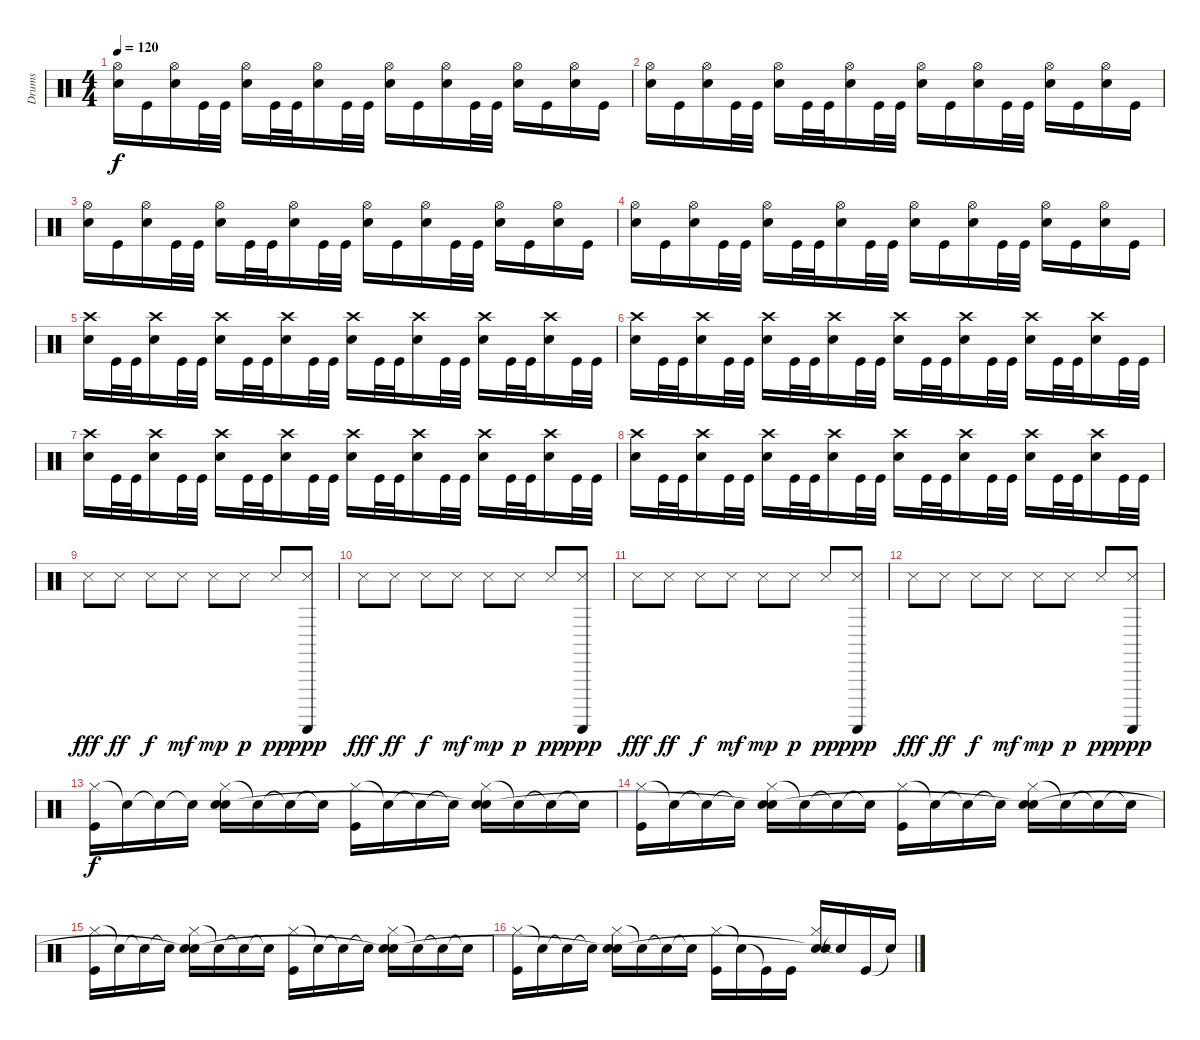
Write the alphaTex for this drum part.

\track ("Drums" "Drums") {instrument percussion}
\staff {score}
\articulation defaults
\ts (4 4)
\tempo 120
\clef neutral
\ks c
("Hi-Hat (open)" "Electric Snare (hit)").16{dy f} "Kick (hit)".16 ("Hi-Hat (open)" "Electric Snare (hit)").16 "Kick (hit)".32 "Kick (hit)".32 ("Hi-Hat (open)" "Electric Snare (hit)").16 "Kick (hit)".32 "Kick (hit)".32 ("Hi-Hat (open)" "Electric Snare (hit)").16 "Kick (hit)".32 "Kick (hit)".32 ("Hi-Hat (open)" "Electric Snare (hit)").16 "Kick (hit)".16 ("Hi-Hat (open)" "Electric Snare (hit)").16 "Kick (hit)".32 "Kick (hit)".32 ("Hi-Hat (open)" "Electric Snare (hit)").16 "Kick (hit)".16 ("Hi-Hat (open)" "Electric Snare (hit)").16 "Kick (hit)".16 |
("Hi-Hat (open)" "Electric Snare (hit)").16 "Kick (hit)".16 ("Hi-Hat (open)" "Electric Snare (hit)").16 "Kick (hit)".32 "Kick (hit)".32 ("Hi-Hat (open)" "Electric Snare (hit)").16 "Kick (hit)".32 "Kick (hit)".32 ("Hi-Hat (open)" "Electric Snare (hit)").16 "Kick (hit)".32 "Kick (hit)".32 ("Hi-Hat (open)" "Electric Snare (hit)").16 "Kick (hit)".16 ("Hi-Hat (open)" "Electric Snare (hit)").16 "Kick (hit)".32 "Kick (hit)".32 ("Hi-Hat (open)" "Electric Snare (hit)").16 "Kick (hit)".16 ("Hi-Hat (open)" "Electric Snare (hit)").16 "Kick (hit)".16 |
("Hi-Hat (open)" "Electric Snare (hit)").16 "Kick (hit)".16 ("Hi-Hat (open)" "Electric Snare (hit)").16 "Kick (hit)".32 "Kick (hit)".32 ("Hi-Hat (open)" "Electric Snare (hit)").16 "Kick (hit)".32 "Kick (hit)".32 ("Hi-Hat (open)" "Electric Snare (hit)").16 "Kick (hit)".32 "Kick (hit)".32 ("Hi-Hat (open)" "Electric Snare (hit)").16 "Kick (hit)".16 ("Hi-Hat (open)" "Electric Snare (hit)").16 "Kick (hit)".32 "Kick (hit)".32 ("Hi-Hat (open)" "Electric Snare (hit)").16 "Kick (hit)".16 ("Hi-Hat (open)" "Electric Snare (hit)").16 "Kick (hit)".16 |
("Hi-Hat (open)" "Electric Snare (hit)").16 "Kick (hit)".16 ("Hi-Hat (open)" "Electric Snare (hit)").16 "Kick (hit)".32 "Kick (hit)".32 ("Hi-Hat (open)" "Electric Snare (hit)").16 "Kick (hit)".32 "Kick (hit)".32 ("Hi-Hat (open)" "Electric Snare (hit)").16 "Kick (hit)".32 "Kick (hit)".32 ("Hi-Hat (open)" "Electric Snare (hit)").16 "Kick (hit)".16 ("Hi-Hat (open)" "Electric Snare (hit)").16 "Kick (hit)".32 "Kick (hit)".32 ("Hi-Hat (open)" "Electric Snare (hit)").16 "Kick (hit)".16 ("Hi-Hat (open)" "Electric Snare (hit)").16 "Kick (hit)".16 |
("Crash high (hit)" "Electric Snare (hit)").16 "Kick (hit)".32 "Kick (hit)".32 ("Crash high (hit)" "Electric Snare (hit)").16 "Kick (hit)".32 "Kick (hit)".32 ("Crash high (hit)" "Electric Snare (hit)").16 "Kick (hit)".32 "Kick (hit)".32 ("Crash high (hit)" "Electric Snare (hit)").16 "Kick (hit)".32 "Kick (hit)".32 ("Crash high (hit)" "Electric Snare (hit)").16 "Kick (hit)".32 "Kick (hit)".32 ("Crash high (hit)" "Electric Snare (hit)").16 "Kick (hit)".32 "Kick (hit)".32 ("Crash high (hit)" "Electric Snare (hit)").16 "Kick (hit)".32 "Kick (hit)".32 ("Crash high (hit)" "Electric Snare (hit)").16 "Kick (hit)".32 "Kick (hit)".32 |
("Crash high (hit)" "Electric Snare (hit)").16 "Kick (hit)".32 "Kick (hit)".32 ("Crash high (hit)" "Electric Snare (hit)").16 "Kick (hit)".32 "Kick (hit)".32 ("Crash high (hit)" "Electric Snare (hit)").16 "Kick (hit)".32 "Kick (hit)".32 ("Crash high (hit)" "Electric Snare (hit)").16 "Kick (hit)".32 "Kick (hit)".32 ("Crash high (hit)" "Electric Snare (hit)").16 "Kick (hit)".32 "Kick (hit)".32 ("Crash high (hit)" "Electric Snare (hit)").16 "Kick (hit)".32 "Kick (hit)".32 ("Crash high (hit)" "Electric Snare (hit)").16 "Kick (hit)".32 "Kick (hit)".32 ("Crash high (hit)" "Electric Snare (hit)").16 "Kick (hit)".32 "Kick (hit)".32 |
("Crash high (hit)" "Electric Snare (hit)").16 "Kick (hit)".32 "Kick (hit)".32 ("Crash high (hit)" "Electric Snare (hit)").16 "Kick (hit)".32 "Kick (hit)".32 ("Crash high (hit)" "Electric Snare (hit)").16 "Kick (hit)".32 "Kick (hit)".32 ("Crash high (hit)" "Electric Snare (hit)").16 "Kick (hit)".32 "Kick (hit)".32 ("Crash high (hit)" "Electric Snare (hit)").16 "Kick (hit)".32 "Kick (hit)".32 ("Crash high (hit)" "Electric Snare (hit)").16 "Kick (hit)".32 "Kick (hit)".32 ("Crash high (hit)" "Electric Snare (hit)").16 "Kick (hit)".32 "Kick (hit)".32 ("Crash high (hit)" "Electric Snare (hit)").16 "Kick (hit)".32 "Kick (hit)".32 |
("Crash high (hit)" "Electric Snare (hit)").16 "Kick (hit)".32 "Kick (hit)".32 ("Crash high (hit)" "Electric Snare (hit)").16 "Kick (hit)".32 "Kick (hit)".32 ("Crash high (hit)" "Electric Snare (hit)").16 "Kick (hit)".32 "Kick (hit)".32 ("Crash high (hit)" "Electric Snare (hit)").16 "Kick (hit)".32 "Kick (hit)".32 ("Crash high (hit)" "Electric Snare (hit)").16 "Kick (hit)".32 "Kick (hit)".32 ("Crash high (hit)" "Electric Snare (hit)").16 "Kick (hit)".32 "Kick (hit)".32 ("Crash high (hit)" "Electric Snare (hit)").16 "Kick (hit)".32 "Kick (hit)".32 ("Crash high (hit)" "Electric Snare (hit)").16 "Kick (hit)".32 "Kick (hit)".32 |
"Snare (side stick) 3".8{dy fff} "Snare (side stick) 3".8{dy ff} "Snare (side stick) 3".8{dy f} "Snare (side stick) 3".8{dy mf} "Snare (side stick) 3".8{dy mp} "Snare (side stick) 3".8{dy p} "Snare (side stick) 3".8{dy pp} ("Guiro (scrap-return)" "Snare (side stick) 3").8{dy ppp} |
"Snare (side stick) 3".8{dy fff} "Snare (side stick) 3".8{dy ff} "Snare (side stick) 3".8{dy f} "Snare (side stick) 3".8{dy mf} "Snare (side stick) 3".8{dy mp} "Snare (side stick) 3".8{dy p} "Snare (side stick) 3".8{dy pp} ("Guiro (scrap-return)" "Snare (side stick) 3").8{dy ppp} |
"Snare (side stick) 3".8{dy fff} "Snare (side stick) 3".8{dy ff} "Snare (side stick) 3".8{dy f} "Snare (side stick) 3".8{dy mf} "Snare (side stick) 3".8{dy mp} "Snare (side stick) 3".8{dy p} "Snare (side stick) 3".8{dy pp} ("Guiro (scrap-return)" "Snare (side stick) 3").8{dy ppp} |
"Snare (side stick) 3".8{dy fff} "Snare (side stick) 3".8{dy ff} "Snare (side stick) 3".8{dy f} "Snare (side stick) 3".8{dy mf} "Snare (side stick) 3".8{dy mp} "Snare (side stick) 3".8{dy p} "Snare (side stick) 3".8{dy pp} ("Guiro (scrap-return)" "Snare (side stick) 3").8{dy ppp} |
("Hi-Hat (closed)" "Kick (hit)").16{dy f} "Snare (hit)"{t}.16 "Snare (hit)"{t}.16 "Snare (hit)"{t}.16 ("Hi-Hat (closed)" "Electric Snare (hit)" "Snare (hit)").16 "Snare (hit)"{t}.16 "Snare (hit)"{t}.16 "Snare (hit)"{t}.16 ("Hi-Hat (closed)" "Kick (hit)").16 "Snare (hit)"{t}.16 "Snare (hit)"{t}.16 "Snare (hit)"{t}.16 ("Hi-Hat (closed)" "Electric Snare (hit)" "Snare (hit)"{t}).16 "Snare (hit)"{t}.16 "Snare (hit)"{t}.16 "Snare (hit)"{t}.16 |
("Hi-Hat (closed)" "Kick (hit)").16 "Snare (hit)"{t}.16 "Snare (hit)"{t}.16 "Snare (hit)"{t}.16 ("Hi-Hat (closed)" "Electric Snare (hit)" "Snare (hit)"{t}).16 "Snare (hit)"{t}.16 "Snare (hit)"{t}.16 "Snare (hit)"{t}.16 ("Hi-Hat (closed)" "Kick (hit)").16 "Snare (hit)"{t}.16 "Snare (hit)"{t}.16 "Snare (hit)"{t}.16 ("Hi-Hat (closed)" "Electric Snare (hit)" "Snare (hit)"{t}).16 "Snare (hit)"{t}.16 "Snare (hit)"{t}.16 "Snare (hit)"{t}.16 |
("Hi-Hat (closed)" "Kick (hit)").16 "Snare (hit)"{t}.16 "Snare (hit)"{t}.16 "Snare (hit)"{t}.16 ("Hi-Hat (closed)" "Electric Snare (hit)" "Snare (hit)"{t}).16 "Snare (hit)"{t}.16 "Snare (hit)"{t}.16 "Snare (hit)"{t}.16 ("Hi-Hat (closed)" "Kick (hit)").16 "Snare (hit)"{t}.16 "Snare (hit)"{t}.16 "Snare (hit)"{t}.16 ("Hi-Hat (closed)" "Electric Snare (hit)" "Snare (hit)"{t}).16 "Snare (hit)"{t}.16 "Snare (hit)"{t}.16 "Snare (hit)"{t}.16 |
("Hi-Hat (closed)" "Kick (hit)").16 "Snare (hit)"{t}.16 "Snare (hit)"{t}.16 "Snare (hit)"{t}.16 ("Hi-Hat (closed)" "Electric Snare (hit)" "Snare (hit)"{t}).16 "Snare (hit)"{t}.16 "Snare (hit)"{t}.16 "Snare (hit)"{t}.16 ("Hi-Hat (closed)" "Kick (hit)").16 "Snare (hit)"{t}.16 "Kick (hit)"{t}.16 "Kick (hit)".16 ("Hi-Hat (closed)" "Electric Snare (hit)" "Snare (hit)"{t}).16 "Snare (hit)"{t}.16 "Kick (hit)".16 "Snare (hit)"{t}.16
